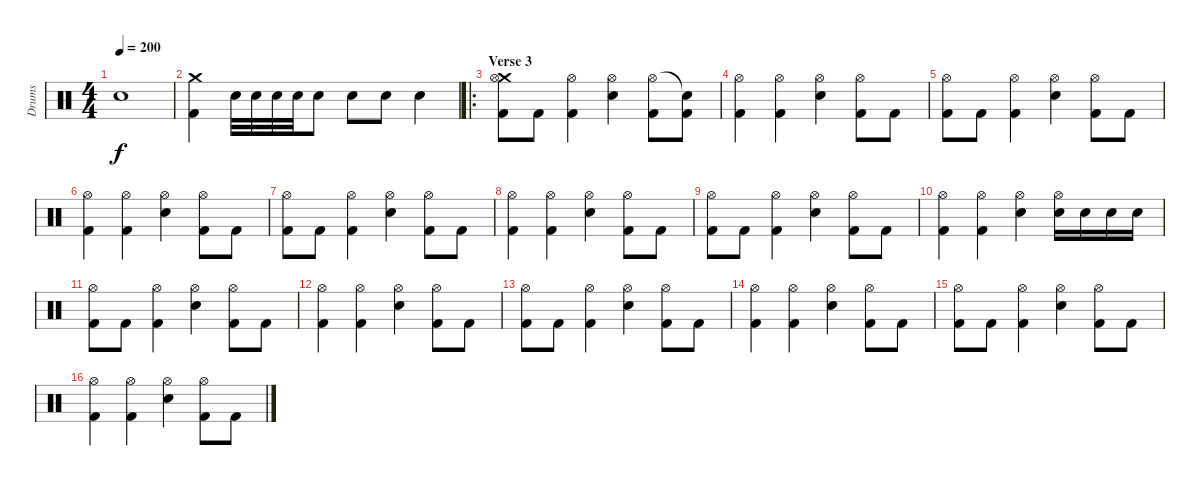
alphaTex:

\track ("Drums" "Drums") {instrument percussion}
\staff {score}
\articulation defaults
\ts (4 4)
\tempo 200
\clef neutral
\ks c "Snare (hit)"{t}.1{dy f}
|
("Kick (hit) 2" "Crash medium (hit)").4 "Snare (hit) 2".32 "Snare (hit) 2".32 "Snare (hit) 2".32 "Snare (hit) 2".32 "Snare (hit) 2".8 "Snare (hit) 2".8 "Snare (hit) 2".8 "Snare (hit) 2".4 |
\ro
\section ("" "Verse 3")
("Crash medium (hit)" "Hi-Hat (open)" "Kick (hit) 2").8 "Kick (hit) 2".8 ("Hi-Hat (open)" "Kick (hit) 2").4 ("Hi-Hat (open)" "Snare (hit) 2").4 ("Hi-Hat (open)" "Kick (hit) 2").8 ("Snare (hit)"{t} "Kick (hit) 2").8 |
("Hi-Hat (open)" "Kick (hit) 2").4 ("Hi-Hat (open)" "Kick (hit) 2").4 ("Hi-Hat (open)" "Snare (hit) 2").4 ("Hi-Hat (open)" "Kick (hit) 2").8 "Kick (hit) 2".8 |
("Hi-Hat (open)" "Kick (hit) 2").8 "Kick (hit) 2".8 ("Hi-Hat (open)" "Kick (hit) 2").4 ("Hi-Hat (open)" "Snare (hit) 2").4 ("Hi-Hat (open)" "Kick (hit) 2").8 "Kick (hit) 2".8 |
("Hi-Hat (open)" "Kick (hit) 2").4 ("Hi-Hat (open)" "Kick (hit) 2").4 ("Hi-Hat (open)" "Snare (hit) 2").4 ("Hi-Hat (open)" "Kick (hit) 2").8 "Kick (hit) 2".8 |
("Hi-Hat (open)" "Kick (hit) 2").8 "Kick (hit) 2".8 ("Hi-Hat (open)" "Kick (hit) 2").4 ("Hi-Hat (open)" "Snare (hit) 2").4 ("Hi-Hat (open)" "Kick (hit) 2").8 "Kick (hit) 2".8 |
("Hi-Hat (open)" "Kick (hit) 2").4 ("Hi-Hat (open)" "Kick (hit) 2").4 ("Hi-Hat (open)" "Snare (hit) 2").4 ("Hi-Hat (open)" "Kick (hit) 2").8 "Kick (hit) 2".8 |
("Hi-Hat (open)" "Kick (hit) 2").8 "Kick (hit) 2".8 ("Hi-Hat (open)" "Kick (hit) 2").4 ("Hi-Hat (open)" "Snare (hit) 2").4 ("Hi-Hat (open)" "Kick (hit) 2").8 "Kick (hit) 2".8 |
("Hi-Hat (open)" "Kick (hit) 2").4 ("Hi-Hat (open)" "Kick (hit) 2").4 ("Hi-Hat (open)" "Snare (hit) 2").4 ("Hi-Hat (open)" "Snare (hit) 2").16 "Snare (hit) 2".16 "Snare (hit) 2".16 "Snare (hit) 2".16 |
("Hi-Hat (open)" "Kick (hit) 2").8 "Kick (hit) 2".8 ("Hi-Hat (open)" "Kick (hit) 2").4 ("Hi-Hat (open)" "Snare (hit) 2").4 ("Hi-Hat (open)" "Kick (hit) 2").8 "Kick (hit) 2".8 |
("Hi-Hat (open)" "Kick (hit) 2").4 ("Hi-Hat (open)" "Kick (hit) 2").4 ("Hi-Hat (open)" "Snare (hit) 2").4 ("Hi-Hat (open)" "Kick (hit) 2").8 "Kick (hit) 2".8 |
("Hi-Hat (open)" "Kick (hit) 2").8 "Kick (hit) 2".8 ("Hi-Hat (open)" "Kick (hit) 2").4 ("Hi-Hat (open)" "Snare (hit) 2").4 ("Hi-Hat (open)" "Kick (hit) 2").8 "Kick (hit) 2".8 |
("Hi-Hat (open)" "Kick (hit) 2").4 ("Hi-Hat (open)" "Kick (hit) 2").4 ("Hi-Hat (open)" "Snare (hit) 2").4 ("Hi-Hat (open)" "Kick (hit) 2").8 "Kick (hit) 2".8 |
("Hi-Hat (open)" "Kick (hit) 2").8 "Kick (hit) 2".8 ("Hi-Hat (open)" "Kick (hit) 2").4 ("Hi-Hat (open)" "Snare (hit) 2").4 ("Hi-Hat (open)" "Kick (hit) 2").8 "Kick (hit) 2".8 |
("Hi-Hat (open)" "Kick (hit) 2").4 ("Hi-Hat (open)" "Kick (hit) 2").4 ("Hi-Hat (open)" "Snare (hit) 2").4 ("Hi-Hat (open)" "Kick (hit) 2").8 "Kick (hit) 2".8
